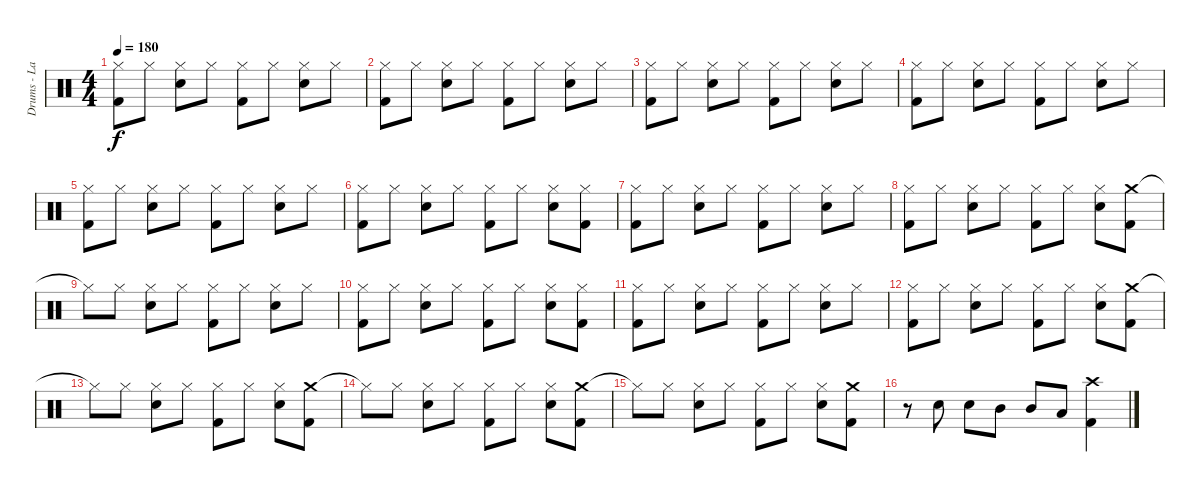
\track ("Drums - Lars" "Drums - La") {instrument percussion}
\staff {score}
\articulation defaults
\ts (4 4)
\tempo 180
\clef neutral
\ks c
("Hi-Hat (closed)" "Kick (hit) 2").8{dy f} "Hi-Hat (closed)".8 ("Hi-Hat (closed)" "Snare (hit) 2").8 "Hi-Hat (closed)".8 ("Hi-Hat (closed)" "Kick (hit) 2").8 "Hi-Hat (closed)".8 ("Hi-Hat (closed)" "Snare (hit) 2").8 "Hi-Hat (closed)".8 |
("Hi-Hat (closed)" "Kick (hit) 2").8 "Hi-Hat (closed)".8 ("Hi-Hat (closed)" "Snare (hit) 2").8 "Hi-Hat (closed)".8 ("Hi-Hat (closed)" "Kick (hit) 2").8 "Hi-Hat (closed)".8 ("Hi-Hat (closed)" "Snare (hit) 2").8 "Hi-Hat (closed)".8 |
("Hi-Hat (closed)" "Kick (hit) 2").8 "Hi-Hat (closed)".8 ("Hi-Hat (closed)" "Snare (hit) 2").8 "Hi-Hat (closed)".8 ("Hi-Hat (closed)" "Kick (hit) 2").8 "Hi-Hat (closed)".8 ("Hi-Hat (closed)" "Snare (hit) 2").8 "Hi-Hat (closed)".8 |
("Hi-Hat (closed)" "Kick (hit) 2").8 "Hi-Hat (closed)".8 ("Hi-Hat (closed)" "Snare (hit) 2").8 "Hi-Hat (closed)".8 ("Hi-Hat (closed)" "Kick (hit) 2").8 "Hi-Hat (closed)".8 ("Hi-Hat (closed)" "Snare (hit) 2").8 "Hi-Hat (closed)".8 |
("Hi-Hat (closed)" "Kick (hit) 2").8 "Hi-Hat (closed)".8 ("Hi-Hat (closed)" "Snare (hit) 2").8 "Hi-Hat (closed)".8 ("Hi-Hat (closed)" "Kick (hit) 2").8 "Hi-Hat (closed)".8 ("Hi-Hat (closed)" "Snare (hit) 2").8 "Hi-Hat (closed)".8 |
("Hi-Hat (closed)" "Kick (hit) 2").8 "Hi-Hat (closed)".8 ("Hi-Hat (closed)" "Snare (hit) 2").8 "Hi-Hat (closed)".8 ("Hi-Hat (closed)" "Kick (hit) 2").8 "Hi-Hat (closed)".8 ("Hi-Hat (closed)" "Snare (hit) 2").8 ("Hi-Hat (closed)" "Kick (hit) 2").8 |
("Hi-Hat (closed)" "Kick (hit) 2").8 "Hi-Hat (closed)".8 ("Hi-Hat (closed)" "Snare (hit) 2").8 "Hi-Hat (closed)".8 ("Hi-Hat (closed)" "Kick (hit) 2").8 "Hi-Hat (closed)".8 ("Hi-Hat (closed)" "Snare (hit) 2").8 "Hi-Hat (closed)".8 |
("Hi-Hat (closed)" "Kick (hit) 2").8 "Hi-Hat (closed)".8 ("Hi-Hat (closed)" "Snare (hit) 2").8 "Hi-Hat (closed)".8 ("Hi-Hat (closed)" "Kick (hit) 2").8 "Hi-Hat (closed)".8 ("Hi-Hat (closed)" "Snare (hit) 2").8 ("Crash medium (hit)" "Kick (hit) 2").8 |
"Hi-Hat (closed)"{t}.8 "Hi-Hat (closed)".8 ("Hi-Hat (closed)" "Snare (hit) 2").8 "Hi-Hat (closed)".8 ("Hi-Hat (closed)" "Kick (hit) 2").8 "Hi-Hat (closed)".8 ("Hi-Hat (closed)" "Snare (hit) 2").8 "Hi-Hat (closed)".8 |
("Hi-Hat (closed)" "Kick (hit) 2").8 "Hi-Hat (closed)".8 ("Hi-Hat (closed)" "Snare (hit) 2").8 "Hi-Hat (closed)".8 ("Hi-Hat (closed)" "Kick (hit) 2").8 "Hi-Hat (closed)".8 ("Hi-Hat (closed)" "Snare (hit) 2").8 ("Hi-Hat (closed)" "Kick (hit) 2").8 |
("Hi-Hat (closed)" "Kick (hit) 2").8 "Hi-Hat (closed)".8 ("Hi-Hat (closed)" "Snare (hit) 2").8 "Hi-Hat (closed)".8 ("Hi-Hat (closed)" "Kick (hit) 2").8 "Hi-Hat (closed)".8 ("Hi-Hat (closed)" "Snare (hit) 2").8 "Hi-Hat (closed)".8 |
("Hi-Hat (closed)" "Kick (hit) 2").8 "Hi-Hat (closed)".8 ("Hi-Hat (closed)" "Snare (hit) 2").8 "Hi-Hat (closed)".8 ("Hi-Hat (closed)" "Kick (hit) 2").8 "Hi-Hat (closed)".8 ("Hi-Hat (closed)" "Snare (hit) 2").8 ("Crash medium (hit)" "Kick (hit) 2").8 |
"Hi-Hat (closed)"{t}.8 "Hi-Hat (closed)".8 ("Hi-Hat (closed)" "Snare (hit) 2").8 "Hi-Hat (closed)".8 ("Hi-Hat (closed)" "Kick (hit) 2").8 "Hi-Hat (closed)".8 ("Hi-Hat (closed)" "Snare (hit) 2").8 ("Crash medium (hit)" "Kick (hit) 2").8 |
"Hi-Hat (closed)"{t}.8 "Hi-Hat (closed)".8 ("Hi-Hat (closed)" "Snare (hit) 2").8 "Hi-Hat (closed)".8 ("Hi-Hat (closed)" "Kick (hit) 2").8 "Hi-Hat (closed)".8 ("Hi-Hat (closed)" "Snare (hit) 2").8 ("Crash medium (hit)" "Kick (hit) 2").8 |
"Hi-Hat (closed)"{t}.8 "Hi-Hat (closed)".8 ("Hi-Hat (closed)" "Snare (hit) 2").8 "Hi-Hat (closed)".8 ("Hi-Hat (closed)" "Kick (hit) 2").8 "Hi-Hat (closed)".8 ("Hi-Hat (closed)" "Snare (hit) 2").8 ("Crash medium (hit)" "Kick (hit) 2").8 |
r.8 "Snare (hit) 2".8 "Snare (hit) 2".8 "Mid Tom (hit)".8 "Mid Tom (hit)".8 "Low Tom (hit)".8 ("Crash high (hit)" "Kick (hit) 2").4
